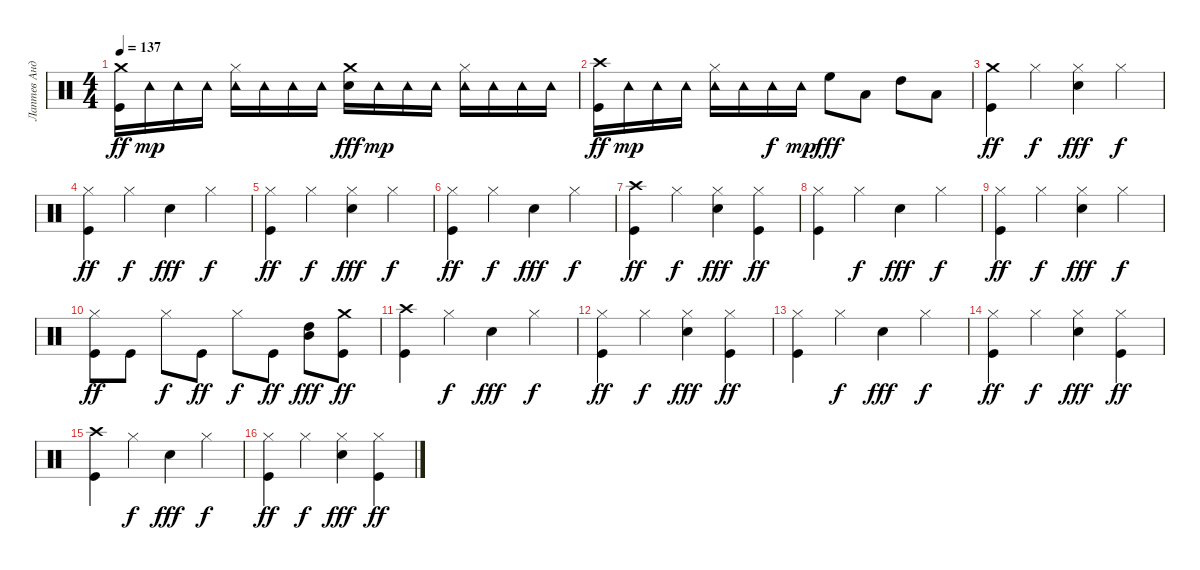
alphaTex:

\track ("Лаптев Андрей" "Лаптев Анд") {instrument percussion}
\staff {score}
\articulation defaults
\ts (4 4)
\tempo 137
\clef neutral
\ks c
("Kick (hit)" "Crash medium (hit)").16{dy ff} "Tambourine (hit)".16{dy mp} "Tambourine (hit)".16 "Tambourine (hit)".16 ("Hi-Hat (closed)" "Tambourine (hit)").16 "Tambourine (hit)".16 "Tambourine (hit)".16 "Tambourine (hit)".16 ("Snare (hit) 2" "Crash medium (hit)").16{dy fff} "Tambourine (hit)".16{dy mp} "Tambourine (hit)".16 "Tambourine (hit)".16 ("Tambourine (hit)" "Hi-Hat (closed)").16 "Tambourine (hit)".16 "Tambourine (hit)".16 "Tambourine (hit)".16 |
("Kick (hit)" "Crash high (hit)").16{dy ff} "Tambourine (hit)".16{dy mp} "Tambourine (hit)".16 "Tambourine (hit)".16 ("Tambourine (hit)" "Hi-Hat (closed)").16 "Tambourine (hit)".16 "Tambourine (hit)".16{dy f} "Tambourine (hit)".16{dy mp} "High Floor Tom (hit)".8{dy fff} "Low Tom (hit)".8 "High Tom (hit)".8 "Low Tom (hit)".8 |
("Crash medium (hit)" "Kick (hit)").4{dy ff} "Hi-Hat (closed)".4{dy f} ("Snare (hit) 2" "Hi-Hat (closed)").4{dy fff} "Hi-Hat (closed)".4{dy f} |
("Kick (hit)" "Hi-Hat (closed)").4{dy ff} "Hi-Hat (closed)".4{dy f} "Snare (hit) 2".4{dy fff} "Hi-Hat (closed)".4{dy f} |
("Kick (hit)" "Hi-Hat (closed)").4{dy ff} "Hi-Hat (closed)".4{dy f} ("Snare (hit) 2" "Hi-Hat (closed)").4{dy fff} "Hi-Hat (closed)".4{dy f} |
("Kick (hit)" "Hi-Hat (closed)").4{dy ff} "Hi-Hat (closed)".4{dy f} "Snare (hit) 2".4{dy fff} "Hi-Hat (closed)".4{dy f} |
("Crash high (hit)" "Kick (hit)").4{dy ff} "Hi-Hat (closed)".4{dy f} ("Snare (hit) 2" "Hi-Hat (closed)").4{dy fff} ("Kick (hit)" "Hi-Hat (closed)").4{dy ff} |
("Kick (hit)" "Hi-Hat (closed)").4 "Hi-Hat (closed)".4{dy f} "Snare (hit) 2".4{dy fff} "Hi-Hat (closed)".4{dy f} |
("Kick (hit)" "Hi-Hat (closed)").4{dy ff} "Hi-Hat (closed)".4{dy f} ("Snare (hit) 2" "Hi-Hat (closed)").4{dy fff} "Hi-Hat (closed)".4{dy f} |
("Kick (hit)" "Hi-Hat (closed)").8{dy ff} "Kick (hit)".8 "Hi-Hat (closed)".8{dy f} "Kick (hit)".8{dy ff} "Hi-Hat (closed)".8{dy f} "Kick (hit)".8{dy ff} ("High Tom (hit)" "Mid Tom (hit)").8{dy fff} ("Kick (hit)" "Crash medium (hit)").8{dy ff} |
("Crash high (hit)" "Kick (hit)").4 "Hi-Hat (closed)".4{dy f} "Snare (hit) 2".4{dy fff} "Hi-Hat (closed)".4{dy f} |
("Kick (hit)" "Hi-Hat (closed)").4{dy ff} "Hi-Hat (closed)".4{dy f} ("Snare (hit) 2" "Hi-Hat (closed)").4{dy fff} ("Kick (hit)" "Hi-Hat (closed)").4{dy ff} |
("Kick (hit)" "Hi-Hat (closed)").4 "Hi-Hat (closed)".4{dy f} "Snare (hit) 2".4{dy fff} "Hi-Hat (closed)".4{dy f} |
("Kick (hit)" "Hi-Hat (closed)").4{dy ff} "Hi-Hat (closed)".4{dy f} ("Snare (hit) 2" "Hi-Hat (closed)").4{dy fff} ("Kick (hit)" "Hi-Hat (closed)").4{dy ff} |
("Crash high (hit)" "Kick (hit)").4 "Hi-Hat (closed)".4{dy f} "Snare (hit) 2".4{dy fff} "Hi-Hat (closed)".4{dy f} |
("Kick (hit)" "Hi-Hat (closed)").4{dy ff} "Hi-Hat (closed)".4{dy f} ("Snare (hit) 2" "Hi-Hat (closed)").4{dy fff} ("Kick (hit)" "Hi-Hat (closed)").4{dy ff}
